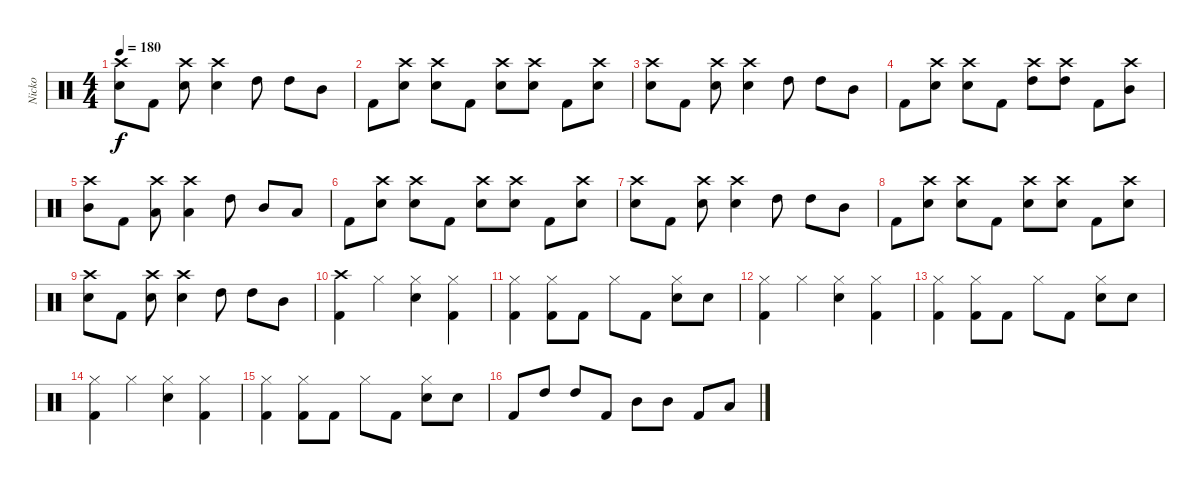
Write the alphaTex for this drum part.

\track ("Nicko" "Nicko") {instrument percussion}
\staff {score}
\articulation defaults
\ts (4 4)
\tempo 180
\clef neutral
\ks c
("Crash high (hit)" "Snare (hit) 2").8{dy f} "Kick (hit) 2".8 ("Crash high (hit)" "Snare (hit) 2").8 ("Crash high (hit)" "Snare (hit) 2").4 "High Tom (hit)".8 "High Tom (hit)".8 "Mid Tom (hit)".8 |
"Kick (hit) 2".8 ("Crash high (hit)" "Snare (hit) 2").8 ("Crash high (hit)" "Snare (hit) 2").8 "Kick (hit) 2".8 ("Crash high (hit)" "Snare (hit) 2").8 ("Crash high (hit)" "Snare (hit) 2").8 "Kick (hit) 2".8 ("Crash high (hit)" "Snare (hit) 2").8 |
("Crash high (hit)" "Snare (hit) 2").8 "Kick (hit) 2".8 ("Crash high (hit)" "Snare (hit) 2").8 ("Crash high (hit)" "Snare (hit) 2").4 "High Tom (hit)".8 "High Tom (hit)".8 "Mid Tom (hit)".8 |
"Kick (hit) 2".8 ("Crash high (hit)" "Snare (hit) 2").8 ("Crash high (hit)" "Snare (hit) 2").8 "Kick (hit) 2".8 ("Crash high (hit)" "High Tom (hit)").8 ("Crash high (hit)" "High Tom (hit)").8 "Kick (hit) 2".8 ("Crash high (hit)" "Mid Tom (hit)").8 |
("Crash high (hit)" "Mid Tom (hit)").8 "Kick (hit) 2".8 ("Crash high (hit)" "Low Tom (hit)").8 ("Crash high (hit)" "Low Tom (hit)").4 "High Tom (hit)".8 "Mid Tom (hit)".8 "Low Tom (hit)".8 |
"Kick (hit) 2".8 ("Crash high (hit)" "Snare (hit) 2").8 ("Crash high (hit)" "Snare (hit) 2").8 "Kick (hit) 2".8 ("Crash high (hit)" "Snare (hit) 2").8 ("Crash high (hit)" "Snare (hit) 2").8 "Kick (hit) 2".8 ("Crash high (hit)" "Snare (hit) 2").8 |
("Crash high (hit)" "Snare (hit) 2").8 "Kick (hit) 2".8 ("Crash high (hit)" "Snare (hit) 2").8 ("Crash high (hit)" "Snare (hit) 2").4 "High Tom (hit)".8 "High Tom (hit)".8 "Mid Tom (hit)".8 |
"Kick (hit) 2".8 ("Crash high (hit)" "Snare (hit) 2").8 ("Crash high (hit)" "Snare (hit) 2").8 "Kick (hit) 2".8 ("Crash high (hit)" "Snare (hit) 2").8 ("Crash high (hit)" "Snare (hit) 2").8 "Kick (hit) 2".8 ("Crash high (hit)" "Snare (hit) 2").8 |
("Crash high (hit)" "Snare (hit) 2").8 "Kick (hit) 2".8 ("Crash high (hit)" "Snare (hit) 2").8 ("Crash high (hit)" "Snare (hit) 2").4 "High Tom (hit)".8 "High Tom (hit)".8 "Mid Tom (hit)".8 |
("Crash high (hit)" "Kick (hit) 2").4 "Hi-Hat (closed)".4 ("Hi-Hat (closed)" "Snare (hit) 2").4 ("Hi-Hat (closed)" "Kick (hit) 2").4 |
("Hi-Hat (closed)" "Kick (hit) 2").4 ("Hi-Hat (closed)" "Kick (hit) 2").8 "Kick (hit) 2".8 "Hi-Hat (closed)".8 "Kick (hit) 2".8 ("Hi-Hat (closed)" "Snare (hit) 2").8 "Snare (hit) 2".8 |
("Hi-Hat (closed)" "Kick (hit) 2").4 "Hi-Hat (closed)".4 ("Hi-Hat (closed)" "Snare (hit) 2").4 ("Hi-Hat (closed)" "Kick (hit) 2").4 |
("Hi-Hat (closed)" "Kick (hit) 2").4 ("Hi-Hat (closed)" "Kick (hit) 2").8 "Kick (hit) 2".8 "Hi-Hat (closed)".8 "Kick (hit) 2".8 ("Hi-Hat (closed)" "Snare (hit) 2").8 "Snare (hit) 2".8 |
("Hi-Hat (closed)" "Kick (hit) 2").4 "Hi-Hat (closed)".4 ("Hi-Hat (closed)" "Snare (hit) 2").4 ("Hi-Hat (closed)" "Kick (hit) 2").4 |
("Hi-Hat (closed)" "Kick (hit) 2").4 ("Hi-Hat (closed)" "Kick (hit) 2").8 "Kick (hit) 2".8 "Hi-Hat (closed)".8 "Kick (hit) 2".8 ("Hi-Hat (closed)" "Snare (hit) 2").8 "Snare (hit) 2".8 |
"Kick (hit) 2".8 "High Tom (hit)".8 "High Tom (hit)".8 "Kick (hit) 2".8 "Mid Tom (hit)".8 "Mid Tom (hit)".8 "Kick (hit) 2".8 "Low Tom (hit)".8
